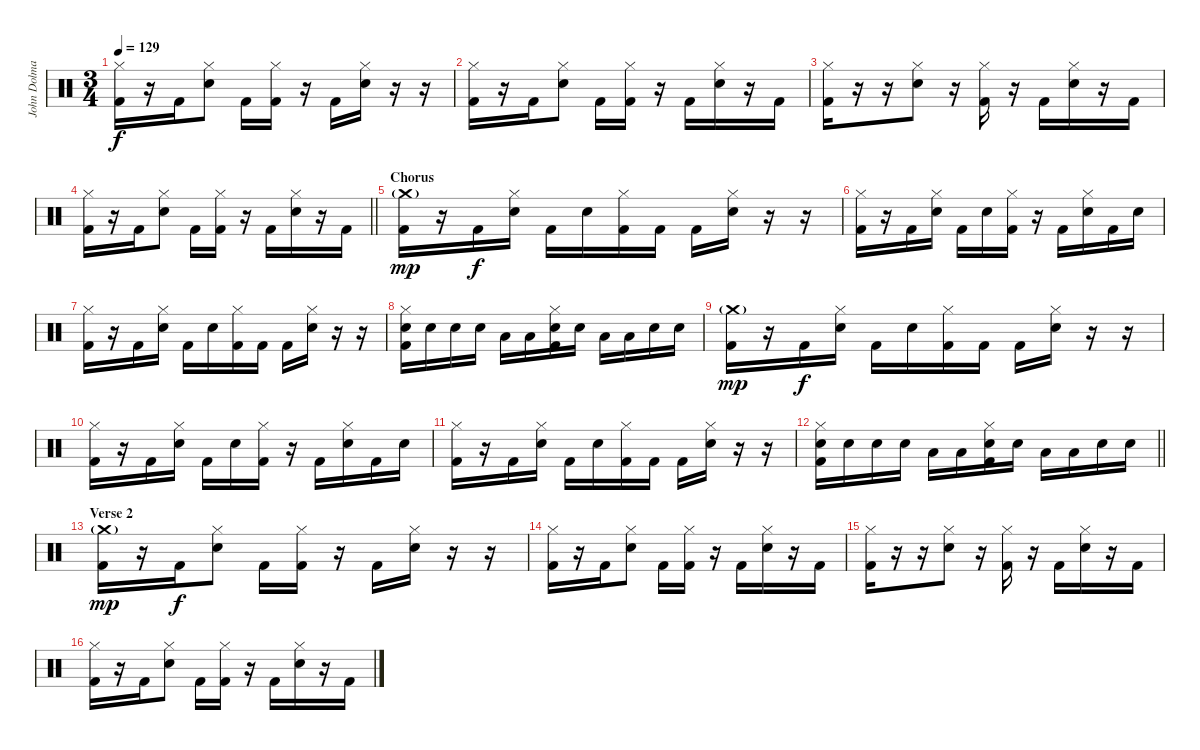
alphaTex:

\track ("John Dolmayan" "John Dolma") {instrument percussion}
\staff {score}
\articulation defaults
\ts (3 4)
\tempo 129
\clef neutral
\ks c
("Hi-Hat (closed)" "Kick (hit) 2").16{dy f} r.16 "Kick (hit) 2".16 ("Hi-Hat (closed)" "Electric Snare (hit)").8 "Kick (hit) 2".16 ("Hi-Hat (closed)" "Kick (hit) 2").16 r.16 "Kick (hit) 2".16 ("Hi-Hat (closed)" "Electric Snare (hit)").16 r.16 r.16 |
("Hi-Hat (closed)" "Kick (hit) 2").16 r.16 "Kick (hit) 2".16 ("Hi-Hat (closed)" "Electric Snare (hit)").8 "Kick (hit) 2".16 ("Hi-Hat (closed)" "Kick (hit) 2").16 r.16 "Kick (hit) 2".16 ("Hi-Hat (closed)" "Electric Snare (hit)").16 r.16 "Kick (hit) 2".16 |
("Hi-Hat (closed)" "Kick (hit) 2").16 r.16 r.16 ("Hi-Hat (closed)" "Electric Snare (hit)").8 r.16 ("Hi-Hat (closed)" "Kick (hit) 2").16 r.16 "Kick (hit) 2".16 ("Hi-Hat (closed)" "Electric Snare (hit)").16 r.16 "Kick (hit) 2".16 |
\barLineRight lightlight
("Hi-Hat (closed)" "Kick (hit) 2").16 r.16 "Kick (hit) 2".16 ("Hi-Hat (closed)" "Electric Snare (hit)").8 "Kick (hit) 2".16 ("Hi-Hat (closed)" "Kick (hit) 2").16 r.16 "Kick (hit) 2".16 ("Hi-Hat (closed)" "Electric Snare (hit)").16 r.16 "Kick (hit) 2".16 |
\section ("" "Chorus")
("Crash medium (hit)"{g} "Kick (hit) 2").16{dy mp} r.16 "Kick (hit) 2".16{dy f} ("Hi-Hat (closed)" "Electric Snare (hit)").16 "Kick (hit) 2".16 "Electric Snare (hit)".16 ("Hi-Hat (closed)" "Kick (hit) 2").16 "Kick (hit) 2".16 "Kick (hit) 2".16 ("Hi-Hat (closed)" "Electric Snare (hit)").16 r.16 r.16 |
("Hi-Hat (closed)" "Kick (hit) 2").16 r.16 "Kick (hit) 2".16 ("Hi-Hat (closed)" "Electric Snare (hit)").16 "Kick (hit) 2".16 "Electric Snare (hit)".16 ("Hi-Hat (closed)" "Kick (hit) 2").16 r.16 "Kick (hit) 2".16 ("Hi-Hat (closed)" "Electric Snare (hit)").16 "Kick (hit) 2".16 "Electric Snare (hit)".16 |
("Hi-Hat (closed)" "Kick (hit) 2").16 r.16 "Kick (hit) 2".16 ("Hi-Hat (closed)" "Electric Snare (hit)").16 "Kick (hit) 2".16 "Electric Snare (hit)".16 ("Hi-Hat (closed)" "Kick (hit) 2").16 "Kick (hit) 2".16 "Kick (hit) 2".16 ("Hi-Hat (closed)" "Electric Snare (hit)").16 r.16 r.16 |
("Hi-Hat (closed)" "Electric Snare (hit)" "Kick (hit) 2").16 "Electric Snare (hit)".16 "Electric Snare (hit)".16 "Electric Snare (hit)".16 "Low Tom (hit)".16 "Low Tom (hit)".16 ("Hi-Hat (closed)" "Electric Snare (hit)" "Kick (hit) 2").16 "Electric Snare (hit)".16 "Low Tom (hit)".16 "Low Tom (hit)".16 "Electric Snare (hit)".16 "Electric Snare (hit)".16 |
("Crash medium (hit)"{g} "Kick (hit) 2").16{dy mp} r.16 "Kick (hit) 2".16{dy f} ("Hi-Hat (closed)" "Electric Snare (hit)").16 "Kick (hit) 2".16 "Electric Snare (hit)".16 ("Hi-Hat (closed)" "Kick (hit) 2").16 "Kick (hit) 2".16 "Kick (hit) 2".16 ("Hi-Hat (closed)" "Electric Snare (hit)").16 r.16 r.16 |
("Hi-Hat (closed)" "Kick (hit) 2").16 r.16 "Kick (hit) 2".16 ("Hi-Hat (closed)" "Electric Snare (hit)").16 "Kick (hit) 2".16 "Electric Snare (hit)".16 ("Hi-Hat (closed)" "Kick (hit) 2").16 r.16 "Kick (hit) 2".16 ("Hi-Hat (closed)" "Electric Snare (hit)").16 "Kick (hit) 2".16 "Electric Snare (hit)".16 |
("Hi-Hat (closed)" "Kick (hit) 2").16 r.16 "Kick (hit) 2".16 ("Hi-Hat (closed)" "Electric Snare (hit)").16 "Kick (hit) 2".16 "Electric Snare (hit)".16 ("Hi-Hat (closed)" "Kick (hit) 2").16 "Kick (hit) 2".16 "Kick (hit) 2".16 ("Hi-Hat (closed)" "Electric Snare (hit)").16 r.16 r.16 |
\barLineRight lightlight
("Hi-Hat (closed)" "Electric Snare (hit)" "Kick (hit) 2").16 "Electric Snare (hit)".16 "Electric Snare (hit)".16 "Electric Snare (hit)".16 "Low Tom (hit)".16 "Low Tom (hit)".16 ("Hi-Hat (closed)" "Electric Snare (hit)" "Kick (hit) 2").16 "Electric Snare (hit)".16 "Low Tom (hit)".16 "Low Tom (hit)".16 "Electric Snare (hit)".16 "Electric Snare (hit)".16 |
\section ("" "Verse 2")
("Crash medium (hit)"{g} "Kick (hit) 2").16{dy mp} r.16 "Kick (hit) 2".16{dy f} ("Hi-Hat (closed)" "Electric Snare (hit)").8 "Kick (hit) 2".16 ("Hi-Hat (closed)" "Kick (hit) 2").16 r.16 "Kick (hit) 2".16 ("Hi-Hat (closed)" "Electric Snare (hit)").16 r.16 r.16 |
("Hi-Hat (closed)" "Kick (hit) 2").16 r.16 "Kick (hit) 2".16 ("Hi-Hat (closed)" "Electric Snare (hit)").8 "Kick (hit) 2".16 ("Hi-Hat (closed)" "Kick (hit) 2").16 r.16 "Kick (hit) 2".16 ("Hi-Hat (closed)" "Electric Snare (hit)").16 r.16 "Kick (hit) 2".16 |
("Hi-Hat (closed)" "Kick (hit) 2").16 r.16 r.16 ("Hi-Hat (closed)" "Electric Snare (hit)").8 r.16 ("Hi-Hat (closed)" "Kick (hit) 2").16 r.16 "Kick (hit) 2".16 ("Hi-Hat (closed)" "Electric Snare (hit)").16 r.16 "Kick (hit) 2".16 |
("Hi-Hat (closed)" "Kick (hit) 2").16 r.16 "Kick (hit) 2".16 ("Hi-Hat (closed)" "Electric Snare (hit)").8 "Kick (hit) 2".16 ("Hi-Hat (closed)" "Kick (hit) 2").16 r.16 "Kick (hit) 2".16 ("Hi-Hat (closed)" "Electric Snare (hit)").16 r.16 "Kick (hit) 2".16
